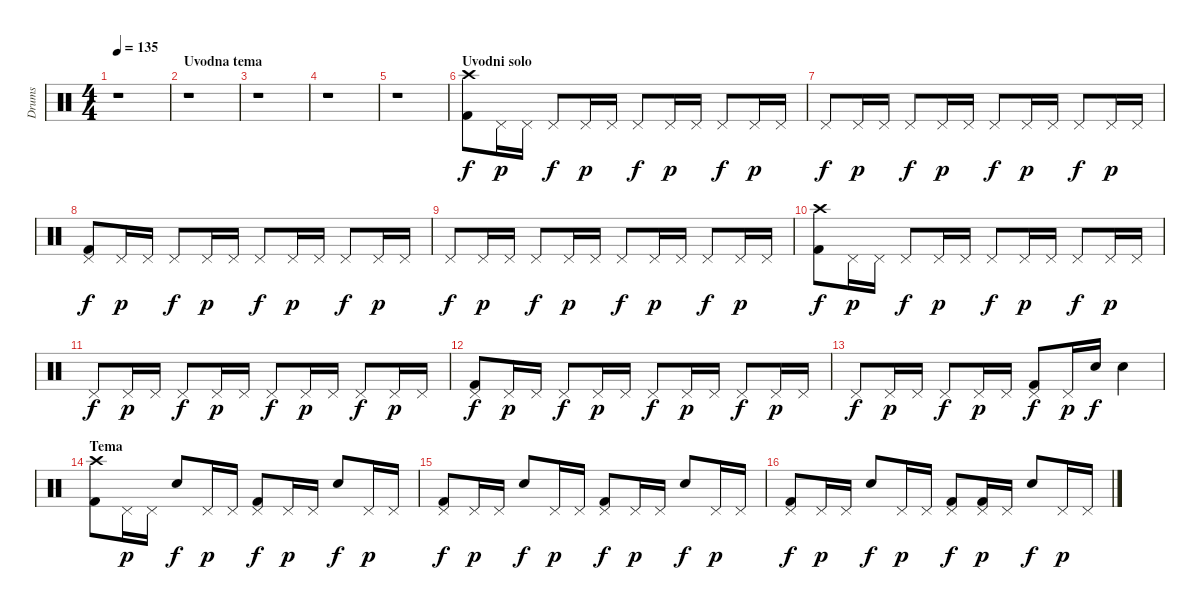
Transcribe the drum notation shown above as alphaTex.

\track ("Drums" "Drums") {instrument percussion}
\staff {score}
\articulation defaults
\ts (4 4)
\tempo 135
\clef neutral
\ks c
r.1{dy f} |
\section ("" "Uvodna tema")
r.1 |
r.1 |
r.1 |
r.1 |
\section ("" "Uvodni solo")
("Crash high (hit)" "Kick (hit) 2").8 "Pedal Hi-Hat (hit)".16{dy p} "Pedal Hi-Hat (hit)".16 "Pedal Hi-Hat (hit)".8{dy f} "Pedal Hi-Hat (hit)".16{dy p} "Pedal Hi-Hat (hit)".16 "Pedal Hi-Hat (hit)".8{dy f} "Pedal Hi-Hat (hit)".16{dy p} "Pedal Hi-Hat (hit)".16 "Pedal Hi-Hat (hit)".8{dy f} "Pedal Hi-Hat (hit)".16{dy p} "Pedal Hi-Hat (hit)".16 |
"Pedal Hi-Hat (hit)".8{dy f} "Pedal Hi-Hat (hit)".16{dy p} "Pedal Hi-Hat (hit)".16 "Pedal Hi-Hat (hit)".8{dy f} "Pedal Hi-Hat (hit)".16{dy p} "Pedal Hi-Hat (hit)".16 "Pedal Hi-Hat (hit)".8{dy f} "Pedal Hi-Hat (hit)".16{dy p} "Pedal Hi-Hat (hit)".16 "Pedal Hi-Hat (hit)".8{dy f} "Pedal Hi-Hat (hit)".16{dy p} "Pedal Hi-Hat (hit)".16 |
("Pedal Hi-Hat (hit)" "Kick (hit) 2").8{dy f} "Pedal Hi-Hat (hit)".16{dy p} "Pedal Hi-Hat (hit)".16 "Pedal Hi-Hat (hit)".8{dy f} "Pedal Hi-Hat (hit)".16{dy p} "Pedal Hi-Hat (hit)".16 "Pedal Hi-Hat (hit)".8{dy f} "Pedal Hi-Hat (hit)".16{dy p} "Pedal Hi-Hat (hit)".16 "Pedal Hi-Hat (hit)".8{dy f} "Pedal Hi-Hat (hit)".16{dy p} "Pedal Hi-Hat (hit)".16 |
"Pedal Hi-Hat (hit)".8{dy f} "Pedal Hi-Hat (hit)".16{dy p} "Pedal Hi-Hat (hit)".16 "Pedal Hi-Hat (hit)".8{dy f} "Pedal Hi-Hat (hit)".16{dy p} "Pedal Hi-Hat (hit)".16 "Pedal Hi-Hat (hit)".8{dy f} "Pedal Hi-Hat (hit)".16{dy p} "Pedal Hi-Hat (hit)".16 "Pedal Hi-Hat (hit)".8{dy f} "Pedal Hi-Hat (hit)".16{dy p} "Pedal Hi-Hat (hit)".16 |
("Crash high (hit)" "Kick (hit) 2").8{dy f} "Pedal Hi-Hat (hit)".16{dy p} "Pedal Hi-Hat (hit)".16 "Pedal Hi-Hat (hit)".8{dy f} "Pedal Hi-Hat (hit)".16{dy p} "Pedal Hi-Hat (hit)".16 "Pedal Hi-Hat (hit)".8{dy f} "Pedal Hi-Hat (hit)".16{dy p} "Pedal Hi-Hat (hit)".16 "Pedal Hi-Hat (hit)".8{dy f} "Pedal Hi-Hat (hit)".16{dy p} "Pedal Hi-Hat (hit)".16 |
"Pedal Hi-Hat (hit)".8{dy f} "Pedal Hi-Hat (hit)".16{dy p} "Pedal Hi-Hat (hit)".16 "Pedal Hi-Hat (hit)".8{dy f} "Pedal Hi-Hat (hit)".16{dy p} "Pedal Hi-Hat (hit)".16 "Pedal Hi-Hat (hit)".8{dy f} "Pedal Hi-Hat (hit)".16{dy p} "Pedal Hi-Hat (hit)".16 "Pedal Hi-Hat (hit)".8{dy f} "Pedal Hi-Hat (hit)".16{dy p} "Pedal Hi-Hat (hit)".16 |
("Pedal Hi-Hat (hit)" "Kick (hit) 2").8{dy f} "Pedal Hi-Hat (hit)".16{dy p} "Pedal Hi-Hat (hit)".16 "Pedal Hi-Hat (hit)".8{dy f} "Pedal Hi-Hat (hit)".16{dy p} "Pedal Hi-Hat (hit)".16 "Pedal Hi-Hat (hit)".8{dy f} "Pedal Hi-Hat (hit)".16{dy p} "Pedal Hi-Hat (hit)".16 "Pedal Hi-Hat (hit)".8{dy f} "Pedal Hi-Hat (hit)".16{dy p} "Pedal Hi-Hat (hit)".16 |
"Pedal Hi-Hat (hit)".8{dy f} "Pedal Hi-Hat (hit)".16{dy p} "Pedal Hi-Hat (hit)".16 "Pedal Hi-Hat (hit)".8{dy f} "Pedal Hi-Hat (hit)".16{dy p} "Pedal Hi-Hat (hit)".16 ("Pedal Hi-Hat (hit)" "Kick (hit) 2").8{dy f} "Pedal Hi-Hat (hit)".16{dy p} "Electric Snare (hit)".16{dy f} "Electric Snare (hit)".4 |
\section ("" "Tema")
("Crash high (hit)" "Kick (hit) 2").8 "Pedal Hi-Hat (hit)".16{dy p} "Pedal Hi-Hat (hit)".16 "Electric Snare (hit)".8{dy f} "Pedal Hi-Hat (hit)".16{dy p} "Pedal Hi-Hat (hit)".16 ("Pedal Hi-Hat (hit)" "Kick (hit) 2").8{dy f} "Pedal Hi-Hat (hit)".16{dy p} "Pedal Hi-Hat (hit)".16 "Electric Snare (hit)".8{dy f} "Pedal Hi-Hat (hit)".16{dy p} "Pedal Hi-Hat (hit)".16 |
("Pedal Hi-Hat (hit)" "Kick (hit) 2").8{dy f} "Pedal Hi-Hat (hit)".16{dy p} "Pedal Hi-Hat (hit)".16 "Electric Snare (hit)".8{dy f} "Pedal Hi-Hat (hit)".16{dy p} "Pedal Hi-Hat (hit)".16 ("Pedal Hi-Hat (hit)" "Kick (hit) 2").8{dy f} "Pedal Hi-Hat (hit)".16{dy p} "Pedal Hi-Hat (hit)".16 "Electric Snare (hit)".8{dy f} "Pedal Hi-Hat (hit)".16{dy p} "Pedal Hi-Hat (hit)".16 |
("Pedal Hi-Hat (hit)" "Kick (hit) 2").8{dy f} "Pedal Hi-Hat (hit)".16{dy p} "Pedal Hi-Hat (hit)".16 "Electric Snare (hit)".8{dy f} "Pedal Hi-Hat (hit)".16{dy p} "Pedal Hi-Hat (hit)".16 ("Pedal Hi-Hat (hit)" "Kick (hit) 2").8{dy f} ("Pedal Hi-Hat (hit)" "Kick (hit) 2").16{dy p} "Pedal Hi-Hat (hit)".16 "Electric Snare (hit)".8{dy f} "Pedal Hi-Hat (hit)".16{dy p} "Pedal Hi-Hat (hit)".16
